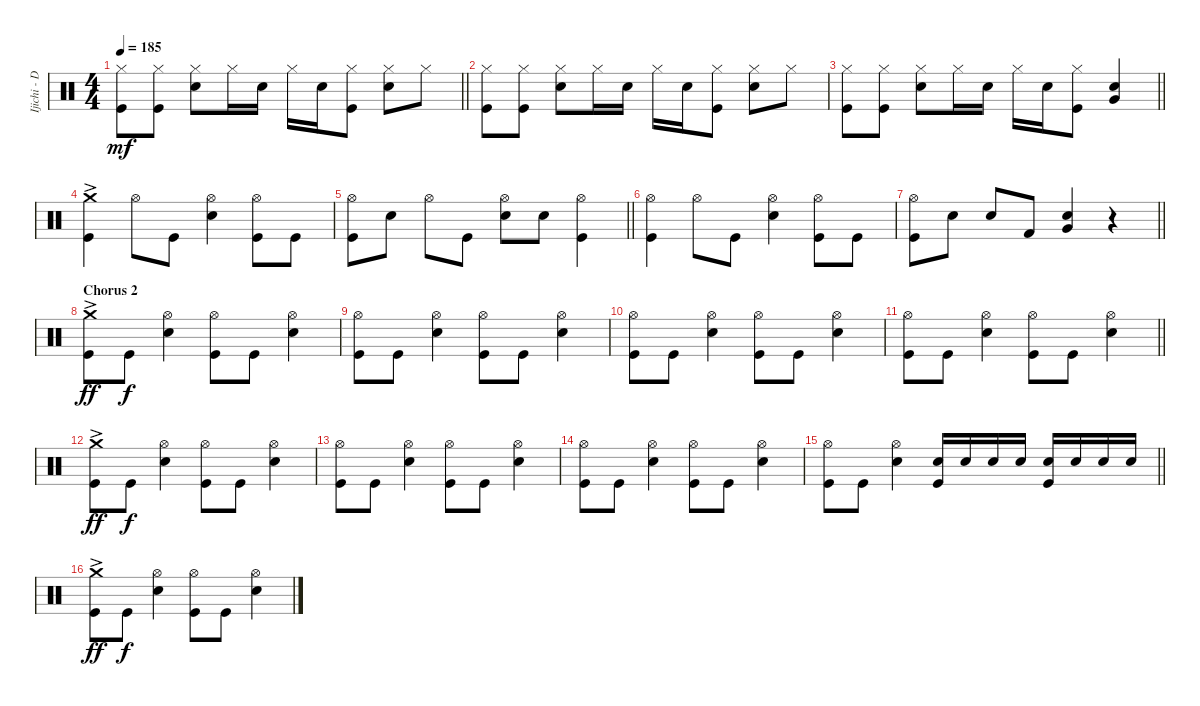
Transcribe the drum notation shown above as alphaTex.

\track ("Ijichi - Drums" "Ijichi - D") {instrument percussion}
\staff
\articulation defaults
\ts (4 4)
\tempo 185
\clef neutral
\barLineRight lightlight
\ks c
("Hi-Hat (closed)" "Kick (hit)").8{dy mf} ("Hi-Hat (closed)" "Kick (hit)").8 ("Hi-Hat (closed)" "Electric Snare (hit)").8 "Hi-Hat (closed)".16 "Electric Snare (hit)".16 "Hi-Hat (closed)".16 "Electric Snare (hit)".16 ("Hi-Hat (closed)" "Kick (hit)").8 ("Hi-Hat (closed)" "Electric Snare (hit)").8 "Hi-Hat (closed)".8 |
("Hi-Hat (closed)" "Kick (hit)").8 ("Hi-Hat (closed)" "Kick (hit)").8 ("Hi-Hat (closed)" "Electric Snare (hit)").8 "Hi-Hat (closed)".16 "Electric Snare (hit)".16 "Hi-Hat (closed)".16 "Electric Snare (hit)".16 ("Hi-Hat (closed)" "Kick (hit)").8 ("Hi-Hat (closed)" "Electric Snare (hit)").8 "Hi-Hat (closed)".8 |
\barLineRight lightlight
("Hi-Hat (closed)" "Kick (hit)").8 ("Hi-Hat (closed)" "Kick (hit)").8 ("Hi-Hat (closed)" "Electric Snare (hit)").8 "Hi-Hat (closed)".16 "Electric Snare (hit)".16 "Hi-Hat (closed)".16 "Electric Snare (hit)".16 ("Hi-Hat (closed)" "Kick (hit)").8 ("Electric Snare (hit)" "Very Low Tom (hit)").4 |
("Crash medium (hit)"{ac} "Kick (hit)").4 "Hi-Hat (open)".8 "Kick (hit)".8 ("Hi-Hat (open)" "Electric Snare (hit)").4 ("Hi-Hat (open)" "Kick (hit)").8 "Kick (hit)".8 |
\barLineRight lightlight
("Hi-Hat (open)" "Kick (hit)").8 "Electric Snare (hit)".8 "Hi-Hat (open)".8 "Kick (hit)".8 ("Hi-Hat (open)" "Electric Snare (hit)").8 "Electric Snare (hit)".8 ("Hi-Hat (open)" "Kick (hit)").4 |
("Hi-Hat (open)" "Kick (hit)").4 "Hi-Hat (open)".8 "Kick (hit)".8 ("Hi-Hat (open)" "Electric Snare (hit)").4 ("Hi-Hat (open)" "Kick (hit)").8 "Kick (hit)".8 |
\barLineRight lightlight
("Hi-Hat (open)" "Kick (hit)").8 "Electric Snare (hit)".8 "Electric Snare (hit)".8 "Kick (hit) 2".8 ("Electric Snare (hit)" "Very Low Tom (hit)").4 r.4 |
\section ("" "Chorus 2")
("Crash medium (hit)"{ac} "Kick (hit)").8{dy ff} "Kick (hit)".8{dy f} ("Hi-Hat (open)" "Electric Snare (hit)").4 ("Hi-Hat (open)" "Kick (hit)").8 "Kick (hit)".8 ("Hi-Hat (open)" "Electric Snare (hit)").4 |
("Hi-Hat (open)" "Kick (hit)").8 "Kick (hit)".8 ("Hi-Hat (open)" "Electric Snare (hit)").4 ("Hi-Hat (open)" "Kick (hit)").8 "Kick (hit)".8 ("Hi-Hat (open)" "Electric Snare (hit)").4 |
("Hi-Hat (open)" "Kick (hit)").8 "Kick (hit)".8 ("Hi-Hat (open)" "Electric Snare (hit)").4 ("Hi-Hat (open)" "Kick (hit)").8 "Kick (hit)".8 ("Hi-Hat (open)" "Electric Snare (hit)").4 |
\barLineRight lightlight
("Hi-Hat (open)" "Kick (hit)").8 "Kick (hit)".8 ("Hi-Hat (open)" "Electric Snare (hit)").4 ("Hi-Hat (open)" "Kick (hit)").8 "Kick (hit)".8 ("Hi-Hat (open)" "Electric Snare (hit)").4 |
("Crash medium (hit)"{ac} "Kick (hit)").8{dy ff} "Kick (hit)".8{dy f} ("Hi-Hat (open)" "Electric Snare (hit)").4 ("Hi-Hat (open)" "Kick (hit)").8 "Kick (hit)".8 ("Hi-Hat (open)" "Electric Snare (hit)").4 |
("Hi-Hat (open)" "Kick (hit)").8 "Kick (hit)".8 ("Hi-Hat (open)" "Electric Snare (hit)").4 ("Hi-Hat (open)" "Kick (hit)").8 "Kick (hit)".8 ("Hi-Hat (open)" "Electric Snare (hit)").4 |
("Hi-Hat (open)" "Kick (hit)").8 "Kick (hit)".8 ("Hi-Hat (open)" "Electric Snare (hit)").4 ("Hi-Hat (open)" "Kick (hit)").8 "Kick (hit)".8 ("Hi-Hat (open)" "Electric Snare (hit)").4 |
\barLineRight lightlight
("Hi-Hat (open)" "Kick (hit)").8 "Kick (hit)".8 ("Hi-Hat (open)" "Electric Snare (hit)").4 ("Electric Snare (hit)" "Kick (hit)").16 "Electric Snare (hit)".16 "Electric Snare (hit)".16 "Electric Snare (hit)".16 ("Electric Snare (hit)" "Kick (hit)").16 "Electric Snare (hit)".16 "Electric Snare (hit)".16 "Electric Snare (hit)".16 |
("Crash medium (hit)"{ac} "Kick (hit)").8{dy ff} "Kick (hit)".8{dy f} ("Hi-Hat (open)" "Electric Snare (hit)").4 ("Hi-Hat (open)" "Kick (hit)").8 "Kick (hit)".8 ("Hi-Hat (open)" "Electric Snare (hit)").4
